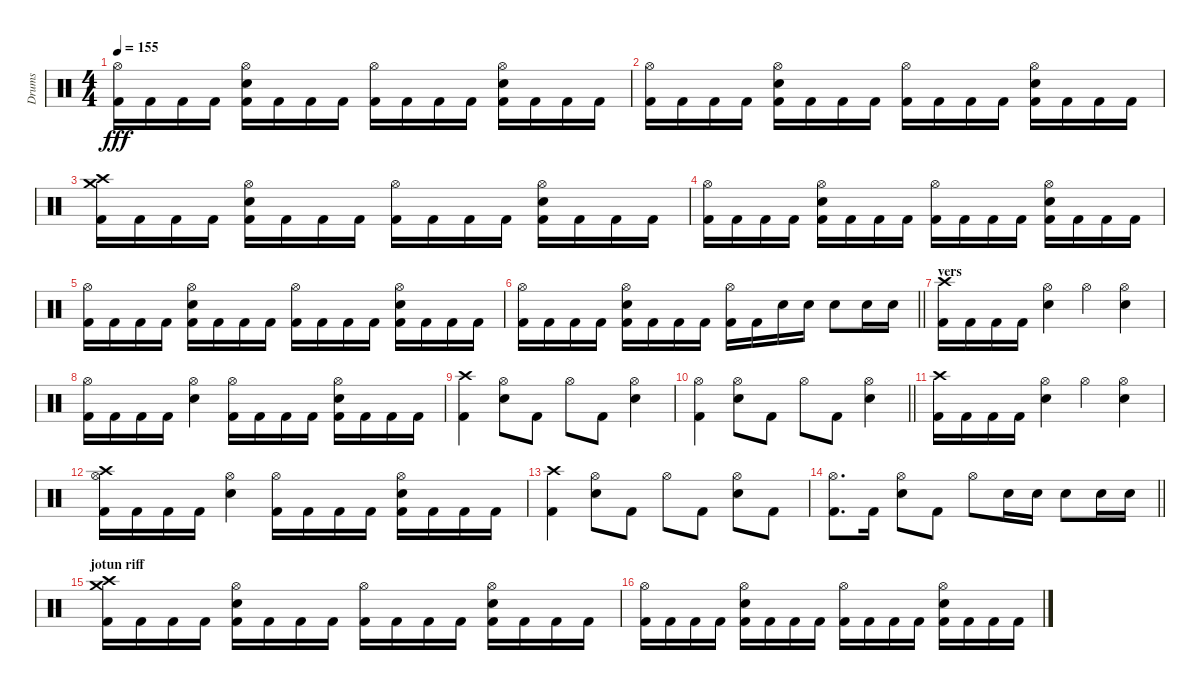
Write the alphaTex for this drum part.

\track ("Drums" "Drums") {instrument percussion}
\staff {score}
\articulation defaults
\ts (4 4)
\tempo 155
\clef neutral
\ks c
("Hi-Hat (open)" "Kick (hit) 2").16{dy fff} "Kick (hit) 2".16 "Kick (hit) 2".16 "Kick (hit) 2".16 ("Snare (hit) 2" "Hi-Hat (open)" "Kick (hit) 2").16 "Kick (hit) 2".16 "Kick (hit) 2".16 "Kick (hit) 2".16 ("Hi-Hat (open)" "Kick (hit) 2").16 "Kick (hit) 2".16 "Kick (hit) 2".16 "Kick (hit) 2".16 ("Snare (hit) 2" "Hi-Hat (open)" "Kick (hit) 2").16 "Kick (hit) 2".16 "Kick (hit) 2".16 "Kick (hit) 2".16 |
("Hi-Hat (open)" "Kick (hit) 2").16 "Kick (hit) 2".16 "Kick (hit) 2".16 "Kick (hit) 2".16 ("Snare (hit) 2" "Hi-Hat (open)" "Kick (hit) 2").16 "Kick (hit) 2".16 "Kick (hit) 2".16 "Kick (hit) 2".16 ("Hi-Hat (open)" "Kick (hit) 2").16 "Kick (hit) 2".16 "Kick (hit) 2".16 "Kick (hit) 2".16 ("Snare (hit) 2" "Hi-Hat (open)" "Kick (hit) 2").16 "Kick (hit) 2".16 "Kick (hit) 2".16 "Kick (hit) 2".16 |
("Crash high (hit)" "Crash medium (hit)" "Kick (hit) 2").16 "Kick (hit) 2".16 "Kick (hit) 2".16 "Kick (hit) 2".16 ("Snare (hit) 2" "Hi-Hat (open)" "Kick (hit) 2").16 "Kick (hit) 2".16 "Kick (hit) 2".16 "Kick (hit) 2".16 ("Hi-Hat (open)" "Kick (hit) 2").16 "Kick (hit) 2".16 "Kick (hit) 2".16 "Kick (hit) 2".16 ("Snare (hit) 2" "Hi-Hat (open)" "Kick (hit) 2").16 "Kick (hit) 2".16 "Kick (hit) 2".16 "Kick (hit) 2".16 |
("Hi-Hat (open)" "Kick (hit) 2").16 "Kick (hit) 2".16 "Kick (hit) 2".16 "Kick (hit) 2".16 ("Snare (hit) 2" "Hi-Hat (open)" "Kick (hit) 2").16 "Kick (hit) 2".16 "Kick (hit) 2".16 "Kick (hit) 2".16 ("Hi-Hat (open)" "Kick (hit) 2").16 "Kick (hit) 2".16 "Kick (hit) 2".16 "Kick (hit) 2".16 ("Snare (hit) 2" "Hi-Hat (open)" "Kick (hit) 2").16 "Kick (hit) 2".16 "Kick (hit) 2".16 "Kick (hit) 2".16 |
("Hi-Hat (open)" "Kick (hit) 2").16 "Kick (hit) 2".16 "Kick (hit) 2".16 "Kick (hit) 2".16 ("Snare (hit) 2" "Hi-Hat (open)" "Kick (hit) 2").16 "Kick (hit) 2".16 "Kick (hit) 2".16 "Kick (hit) 2".16 ("Hi-Hat (open)" "Kick (hit) 2").16 "Kick (hit) 2".16 "Kick (hit) 2".16 "Kick (hit) 2".16 ("Snare (hit) 2" "Hi-Hat (open)" "Kick (hit) 2").16 "Kick (hit) 2".16 "Kick (hit) 2".16 "Kick (hit) 2".16 |
\barLineRight lightlight
("Hi-Hat (open)" "Kick (hit) 2").16 "Kick (hit) 2".16 "Kick (hit) 2".16 "Kick (hit) 2".16 ("Snare (hit) 2" "Hi-Hat (open)" "Kick (hit) 2").16 "Kick (hit) 2".16 "Kick (hit) 2".16 "Kick (hit) 2".16 ("Hi-Hat (open)" "Kick (hit) 2").16 "Kick (hit) 2".16 "Snare (hit) 2".16 "Snare (hit) 2".16 "Snare (hit) 2".8 "Snare (hit) 2".16 "Snare (hit) 2".16 |
\section ("" "vers")
("Crash high (hit)" "Kick (hit) 2").16 "Kick (hit) 2".16 "Kick (hit) 2".16 "Kick (hit) 2".16 ("Snare (hit) 2" "Hi-Hat (open)").4 "Hi-Hat (open)".4 ("Snare (hit) 2" "Hi-Hat (open)").4 |
("Hi-Hat (open)" "Kick (hit) 2").16 "Kick (hit) 2".16 "Kick (hit) 2".16 "Kick (hit) 2".16 ("Snare (hit) 2" "Hi-Hat (open)").4 ("Hi-Hat (open)" "Kick (hit) 2").16 "Kick (hit) 2".16 "Kick (hit) 2".16 "Kick (hit) 2".16 ("Snare (hit) 2" "Hi-Hat (open)" "Kick (hit) 2").16 "Kick (hit) 2".16 "Kick (hit) 2".16 "Kick (hit) 2".16 |
("Crash high (hit)" "Kick (hit) 2").4 ("Snare (hit) 2" "Hi-Hat (open)").8 "Kick (hit) 2".8 "Hi-Hat (open)".8 "Kick (hit) 2".8 ("Snare (hit) 2" "Hi-Hat (open)").4 |
\barLineRight lightlight
("Hi-Hat (open)" "Kick (hit) 2").4 ("Snare (hit) 2" "Hi-Hat (open)").8 "Kick (hit) 2".8 "Hi-Hat (open)".8 "Kick (hit) 2".8 ("Snare (hit) 2" "Hi-Hat (open)").4 |
("Crash high (hit)" "Kick (hit) 2").16 "Kick (hit) 2".16 "Kick (hit) 2".16 "Kick (hit) 2".16 ("Snare (hit) 2" "Hi-Hat (open)").4 "Hi-Hat (open)".4 ("Snare (hit) 2" "Hi-Hat (open)").4 |
("Crash high (hit)" "Hi-Hat (open)" "Kick (hit) 2").16 "Kick (hit) 2".16 "Kick (hit) 2".16 "Kick (hit) 2".16 ("Snare (hit) 2" "Hi-Hat (open)").4 ("Hi-Hat (open)" "Kick (hit) 2").16 "Kick (hit) 2".16 "Kick (hit) 2".16 "Kick (hit) 2".16 ("Snare (hit) 2" "Hi-Hat (open)" "Kick (hit) 2").16 "Kick (hit) 2".16 "Kick (hit) 2".16 "Kick (hit) 2".16 |
("Crash high (hit)" "Kick (hit) 2").4 ("Snare (hit) 2" "Hi-Hat (open)").8 "Kick (hit) 2".8 "Hi-Hat (open)".8 "Kick (hit) 2".8 ("Snare (hit) 2" "Hi-Hat (open)").8 "Kick (hit) 2".8 |
\barLineRight lightlight
("Hi-Hat (open)" "Kick (hit) 2").8{d} "Kick (hit) 2".16 ("Snare (hit) 2" "Hi-Hat (open)").8 "Kick (hit) 2".8 "Hi-Hat (open)".8 "Snare (hit) 2".16 "Snare (hit) 2".16 "Snare (hit) 2".8 "Snare (hit) 2".16 "Snare (hit) 2".16 |
\section ("" "jotun riff")
("Crash high (hit)" "Crash medium (hit)" "Kick (hit) 2").16 "Kick (hit) 2".16 "Kick (hit) 2".16 "Kick (hit) 2".16 ("Snare (hit) 2" "Hi-Hat (open)" "Kick (hit) 2").16 "Kick (hit) 2".16 "Kick (hit) 2".16 "Kick (hit) 2".16 ("Hi-Hat (open)" "Kick (hit) 2").16 "Kick (hit) 2".16 "Kick (hit) 2".16 "Kick (hit) 2".16 ("Snare (hit) 2" "Hi-Hat (open)" "Kick (hit) 2").16 "Kick (hit) 2".16 "Kick (hit) 2".16 "Kick (hit) 2".16 |
("Hi-Hat (open)" "Kick (hit) 2").16 "Kick (hit) 2".16 "Kick (hit) 2".16 "Kick (hit) 2".16 ("Snare (hit) 2" "Hi-Hat (open)" "Kick (hit) 2").16 "Kick (hit) 2".16 "Kick (hit) 2".16 "Kick (hit) 2".16 ("Hi-Hat (open)" "Kick (hit) 2").16 "Kick (hit) 2".16 "Kick (hit) 2".16 "Kick (hit) 2".16 ("Snare (hit) 2" "Hi-Hat (open)" "Kick (hit) 2").16 "Kick (hit) 2".16 "Kick (hit) 2".16 "Kick (hit) 2".16
